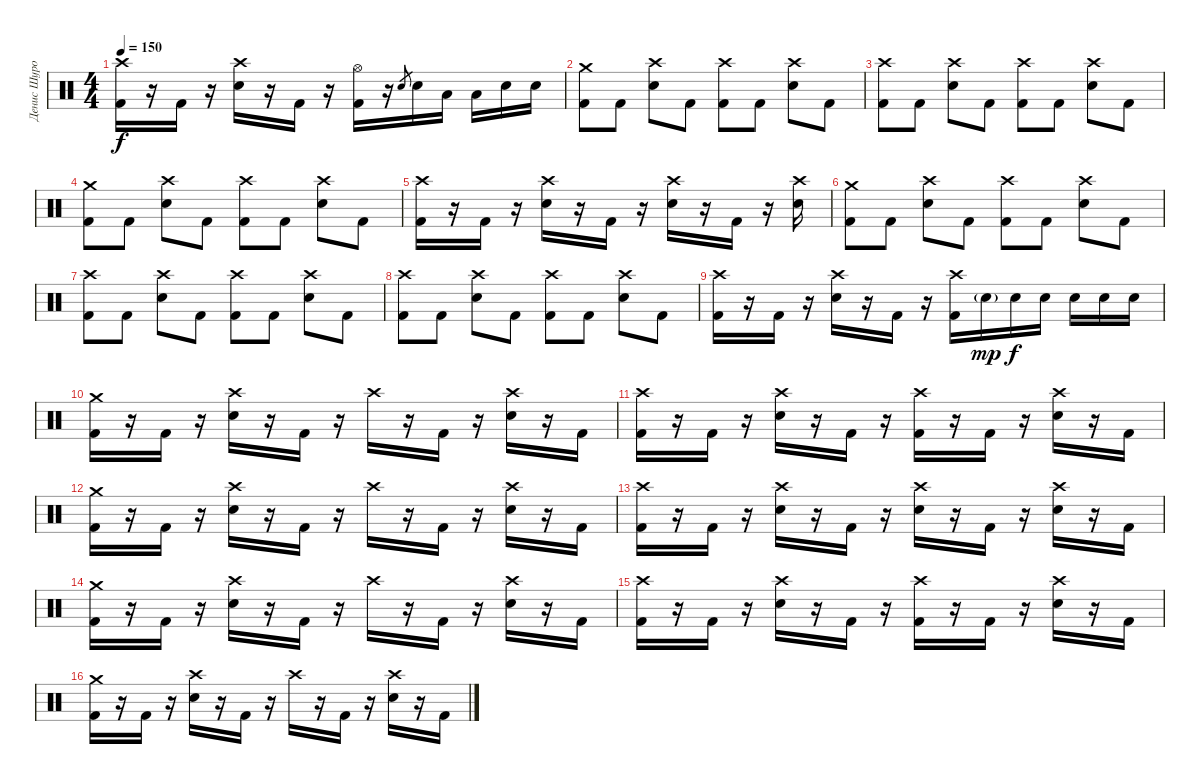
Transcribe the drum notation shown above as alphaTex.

\track ("Денис Шуров" "Денис Шуро") {instrument percussion}
\staff {score}
\articulation defaults
\ts (4 4)
\tempo 150
\clef neutral
\ks c
("Crash high (hit)" "Kick (hit) 2").16{dy f} r.16 "Kick (hit) 2".16 r.16 ("Crash high (hit)" "Electric Snare (hit)").16 r.16 "Kick (hit) 2".16 r.16 ("Hi-Hat (open)" "Kick (hit) 2").16 r.16 "Electric Snare (hit)".8{gr} "Electric Snare (hit)".16 "Low Tom (hit)".16 "Low Tom (hit)".16 "Electric Snare (hit)".16 "Electric Snare (hit)".16 |
("Crash medium (hit)" "Kick (hit) 2").8 "Kick (hit) 2".8 ("Crash high (hit)" "Electric Snare (hit)").8 "Kick (hit) 2".8 ("Crash high (hit)" "Kick (hit) 2").8 "Kick (hit) 2".8 ("Crash high (hit)" "Electric Snare (hit)").8 "Kick (hit) 2".8 |
("Crash high (hit)" "Kick (hit) 2").8 "Kick (hit) 2".8 ("Crash high (hit)" "Electric Snare (hit)").8 "Kick (hit) 2".8 ("Crash high (hit)" "Kick (hit) 2").8 "Kick (hit) 2".8 ("Crash high (hit)" "Electric Snare (hit)").8 "Kick (hit) 2".8 |
("Crash medium (hit)" "Kick (hit) 2").8 "Kick (hit) 2".8 ("Crash high (hit)" "Electric Snare (hit)").8 "Kick (hit) 2".8 ("Crash high (hit)" "Kick (hit) 2").8 "Kick (hit) 2".8 ("Crash high (hit)" "Electric Snare (hit)").8 "Kick (hit) 2".8 |
("Crash high (hit)" "Kick (hit) 2").16 r.16 "Kick (hit) 2".16 r.16 ("Crash high (hit)" "Electric Snare (hit)").16 r.16 "Kick (hit) 2".16 r.16 ("Crash high (hit)" "Electric Snare (hit)").16 r.16 "Kick (hit) 2".16 r.16 ("Crash high (hit)" "Electric Snare (hit)").16 |
("Crash medium (hit)" "Kick (hit) 2").8 "Kick (hit) 2".8 ("Crash high (hit)" "Electric Snare (hit)").8 "Kick (hit) 2".8 ("Crash high (hit)" "Kick (hit) 2").8 "Kick (hit) 2".8 ("Crash high (hit)" "Electric Snare (hit)").8 "Kick (hit) 2".8 |
("Crash high (hit)" "Kick (hit) 2").8 "Kick (hit) 2".8 ("Crash high (hit)" "Electric Snare (hit)").8 "Kick (hit) 2".8 ("Crash high (hit)" "Kick (hit) 2").8 "Kick (hit) 2".8 ("Crash high (hit)" "Electric Snare (hit)").8 "Kick (hit) 2".8 |
("Crash high (hit)" "Kick (hit) 2").8 "Kick (hit) 2".8 ("Crash high (hit)" "Electric Snare (hit)").8 "Kick (hit) 2".8 ("Crash high (hit)" "Kick (hit) 2").8 "Kick (hit) 2".8 ("Crash high (hit)" "Electric Snare (hit)").8 "Kick (hit) 2".8 |
("Crash high (hit)" "Kick (hit) 2").16 r.16 "Kick (hit) 2".16 r.16 ("Crash high (hit)" "Electric Snare (hit)").16 r.16 "Kick (hit) 2".16 r.16 ("Crash high (hit)" "Kick (hit) 2").16 "Electric Snare (hit)"{g}.16{dy mp} "Electric Snare (hit)".16{dy f} "Electric Snare (hit)".16 "Electric Snare (hit)".16 "Electric Snare (hit)".16 "Electric Snare (hit)".16 |
("Crash medium (hit)" "Kick (hit) 2").16 r.16 "Kick (hit) 2".16 r.16 ("Crash high (hit)" "Electric Snare (hit)").16 r.16 "Kick (hit) 2".16 r.16 "Crash high (hit)".16 r.16 "Kick (hit) 2".16 r.16 ("Crash high (hit)" "Electric Snare (hit)").16 r.16 "Kick (hit) 2".16 |
("Crash high (hit)" "Kick (hit) 2").16 r.16 "Kick (hit) 2".16 r.16 ("Crash high (hit)" "Electric Snare (hit)").16 r.16 "Kick (hit) 2".16 r.16 ("Crash high (hit)" "Kick (hit) 2").16 r.16 "Kick (hit) 2".16 r.16 ("Crash high (hit)" "Electric Snare (hit)").16 r.16 "Kick (hit) 2".16 |
("Crash medium (hit)" "Kick (hit) 2").16 r.16 "Kick (hit) 2".16 r.16 ("Crash high (hit)" "Electric Snare (hit)").16 r.16 "Kick (hit) 2".16 r.16 "Crash high (hit)".16 r.16 "Kick (hit) 2".16 r.16 ("Crash high (hit)" "Electric Snare (hit)").16 r.16 "Kick (hit) 2".16 |
("Crash high (hit)" "Kick (hit) 2").16 r.16 "Kick (hit) 2".16 r.16 ("Crash high (hit)" "Electric Snare (hit)").16 r.16 "Kick (hit) 2".16 r.16 ("Crash high (hit)" "Electric Snare (hit)").16 r.16 "Kick (hit) 2".16 r.16 ("Crash high (hit)" "Electric Snare (hit)").16 r.16 "Kick (hit) 2".16 |
("Crash medium (hit)" "Kick (hit) 2").16 r.16 "Kick (hit) 2".16 r.16 ("Crash high (hit)" "Electric Snare (hit)").16 r.16 "Kick (hit) 2".16 r.16 "Crash high (hit)".16 r.16 "Kick (hit) 2".16 r.16 ("Crash high (hit)" "Electric Snare (hit)").16 r.16 "Kick (hit) 2".16 |
("Crash high (hit)" "Kick (hit) 2").16 r.16 "Kick (hit) 2".16 r.16 ("Crash high (hit)" "Electric Snare (hit)").16 r.16 "Kick (hit) 2".16 r.16 ("Crash high (hit)" "Kick (hit) 2").16 r.16 "Kick (hit) 2".16 r.16 ("Crash high (hit)" "Electric Snare (hit)").16 r.16 "Kick (hit) 2".16 |
("Crash medium (hit)" "Kick (hit) 2").16 r.16 "Kick (hit) 2".16 r.16 ("Crash high (hit)" "Electric Snare (hit)").16 r.16 "Kick (hit) 2".16 r.16 "Crash high (hit)".16 r.16 "Kick (hit) 2".16 r.16 ("Crash high (hit)" "Electric Snare (hit)").16 r.16 "Kick (hit) 2".16
